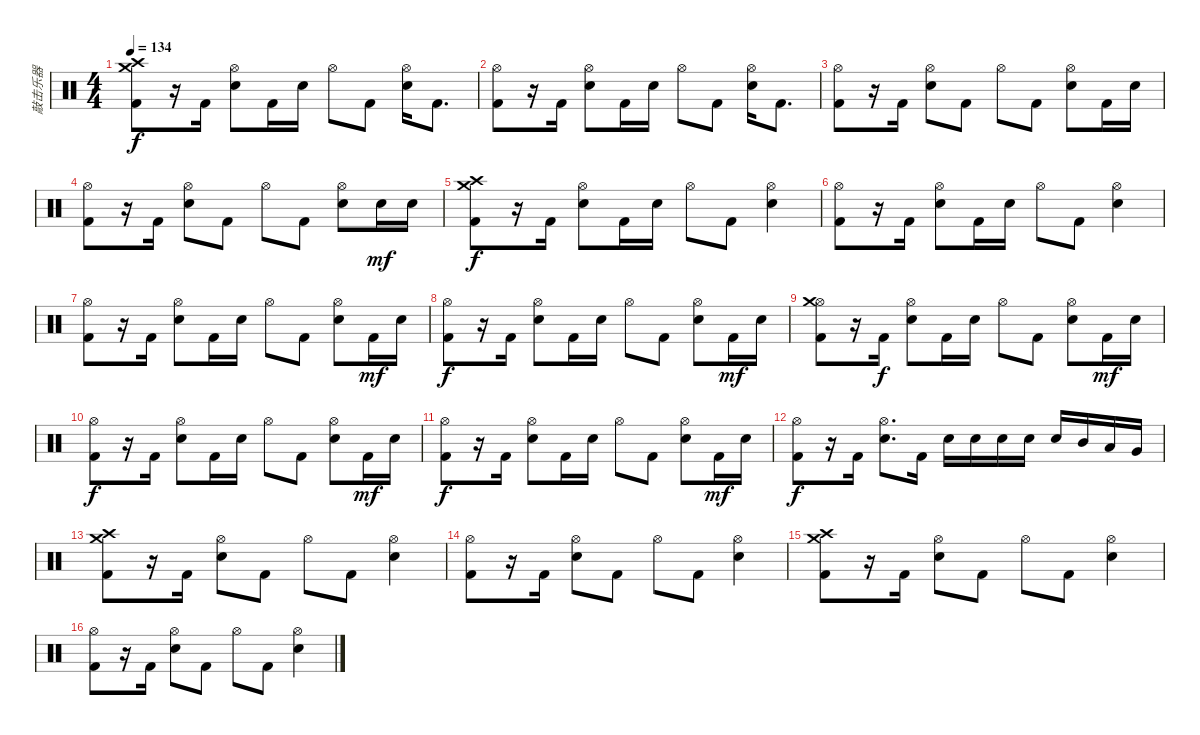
\track ("敲击乐器" "敲击乐器") {instrument percussion}
\staff {score}
\articulation defaults
\ts (4 4)
\tempo 134
\clef neutral
\ks c
("Crash high (hit)" "Crash medium (hit)" "Kick (hit) 2").8{dy f} r.16 "Kick (hit) 2".16 ("Hi-Hat (open)" "Electric Snare (hit)").8 "Kick (hit) 2".16 "Electric Snare (hit)".16 "Hi-Hat (open)".8 "Kick (hit) 2".8 ("Hi-Hat (open)" "Electric Snare (hit)").16 "Kick (hit) 2".8{d} |
("Hi-Hat (open)" "Kick (hit) 2").8 r.16 "Kick (hit) 2".16 ("Hi-Hat (open)" "Electric Snare (hit)").8 "Kick (hit) 2".16 "Electric Snare (hit)".16 "Hi-Hat (open)".8 "Kick (hit) 2".8 ("Hi-Hat (open)" "Electric Snare (hit)").16 "Kick (hit) 2".8{d} |
("Hi-Hat (open)" "Kick (hit) 2").8 r.16 "Kick (hit) 2".16 ("Hi-Hat (open)" "Electric Snare (hit)").8 "Kick (hit) 2".8 "Hi-Hat (open)".8 "Kick (hit) 2".8 ("Hi-Hat (open)" "Electric Snare (hit)").8 "Kick (hit) 2".16 "Electric Snare (hit)".16 |
("Hi-Hat (open)" "Kick (hit) 2").8 r.16 "Kick (hit) 2".16 ("Hi-Hat (open)" "Electric Snare (hit)").8 "Kick (hit) 2".8 "Hi-Hat (open)".8 "Kick (hit) 2".8 ("Hi-Hat (open)" "Electric Snare (hit)").8 "Electric Snare (hit)".16{dy mf} "Electric Snare (hit)".16 |
("Crash high (hit)" "Crash medium (hit)" "Kick (hit) 2").8{dy f} r.16 "Kick (hit) 2".16 ("Hi-Hat (open)" "Electric Snare (hit)").8 "Kick (hit) 2".16 "Electric Snare (hit)".16 "Hi-Hat (open)".8 "Kick (hit) 2".8 ("Hi-Hat (open)" "Electric Snare (hit)").4 |
("Hi-Hat (open)" "Kick (hit) 2").8 r.16 "Kick (hit) 2".16 ("Hi-Hat (open)" "Electric Snare (hit)").8 "Kick (hit) 2".16 "Electric Snare (hit)".16 "Hi-Hat (open)".8 "Kick (hit) 2".8 ("Hi-Hat (open)" "Electric Snare (hit)").4 |
("Hi-Hat (open)" "Kick (hit) 2").8 r.16 "Kick (hit) 2".16 ("Hi-Hat (open)" "Electric Snare (hit)").8 "Kick (hit) 2".16 "Electric Snare (hit)".16 "Hi-Hat (open)".8 "Kick (hit) 2".8 ("Hi-Hat (open)" "Electric Snare (hit)").8 "Kick (hit) 2".16{dy mf} "Electric Snare (hit)".16 |
("Hi-Hat (open)" "Kick (hit) 2").8{dy f} r.16 "Kick (hit) 2".16 ("Hi-Hat (open)" "Electric Snare (hit)").8 "Kick (hit) 2".16 "Electric Snare (hit)".16 "Hi-Hat (open)".8 "Kick (hit) 2".8 ("Hi-Hat (open)" "Electric Snare (hit)").8 "Kick (hit) 2".16{dy mf} "Electric Snare (hit)".16 |
("Hi-Hat (open)" "Crash medium (hit)" "Kick (hit) 2").8 r.16 "Kick (hit) 2".16{dy f} ("Hi-Hat (open)" "Electric Snare (hit)").8 "Kick (hit) 2".16 "Electric Snare (hit)".16 "Hi-Hat (open)".8 "Kick (hit) 2".8 ("Hi-Hat (open)" "Electric Snare (hit)").8 "Kick (hit) 2".16{dy mf} "Electric Snare (hit)".16 |
("Hi-Hat (open)" "Kick (hit) 2").8{dy f} r.16 "Kick (hit) 2".16 ("Hi-Hat (open)" "Electric Snare (hit)").8 "Kick (hit) 2".16 "Electric Snare (hit)".16 "Hi-Hat (open)".8 "Kick (hit) 2".8 ("Hi-Hat (open)" "Electric Snare (hit)").8 "Kick (hit) 2".16{dy mf} "Electric Snare (hit)".16 |
("Hi-Hat (open)" "Kick (hit) 2").8{dy f} r.16 "Kick (hit) 2".16 ("Hi-Hat (open)" "Electric Snare (hit)").8 "Kick (hit) 2".16 "Electric Snare (hit)".16 "Hi-Hat (open)".8 "Kick (hit) 2".8 ("Hi-Hat (open)" "Electric Snare (hit)").8 "Kick (hit) 2".16{dy mf} "Electric Snare (hit)".16 |
("Hi-Hat (open)" "Kick (hit) 2").8{dy f} r.16 "Kick (hit) 2".16 ("Hi-Hat (open)" "Electric Snare (hit)").8{d} "Kick (hit) 2".16 "Electric Snare (hit)".16 "Electric Snare (hit)".16 "Electric Snare (hit)".16 "Electric Snare (hit)".16 "Electric Snare (hit)".16 "Mid Tom (hit)".16 "Low Tom (hit)".16 "Very Low Tom (hit)".16 |
("Crash high (hit)" "Crash medium (hit)" "Kick (hit) 2").8 r.16 "Kick (hit) 2".16 ("Hi-Hat (open)" "Electric Snare (hit)").8 "Kick (hit) 2".8 "Hi-Hat (open)".8 "Kick (hit) 2".8 ("Hi-Hat (open)" "Electric Snare (hit)").4 |
("Hi-Hat (open)" "Kick (hit) 2").8 r.16 "Kick (hit) 2".16 ("Hi-Hat (open)" "Electric Snare (hit)").8 "Kick (hit) 2".8 "Hi-Hat (open)".8 "Kick (hit) 2".8 ("Hi-Hat (open)" "Electric Snare (hit)").4 |
("Crash high (hit)" "Crash medium (hit)" "Kick (hit) 2").8 r.16 "Kick (hit) 2".16 ("Hi-Hat (open)" "Electric Snare (hit)").8 "Kick (hit) 2".8 "Hi-Hat (open)".8 "Kick (hit) 2".8 ("Hi-Hat (open)" "Electric Snare (hit)").4 |
("Hi-Hat (open)" "Kick (hit) 2").8 r.16 "Kick (hit) 2".16 ("Hi-Hat (open)" "Electric Snare (hit)").8 "Kick (hit) 2".8 "Hi-Hat (open)".8 "Kick (hit) 2".8 ("Hi-Hat (open)" "Electric Snare (hit)").4
